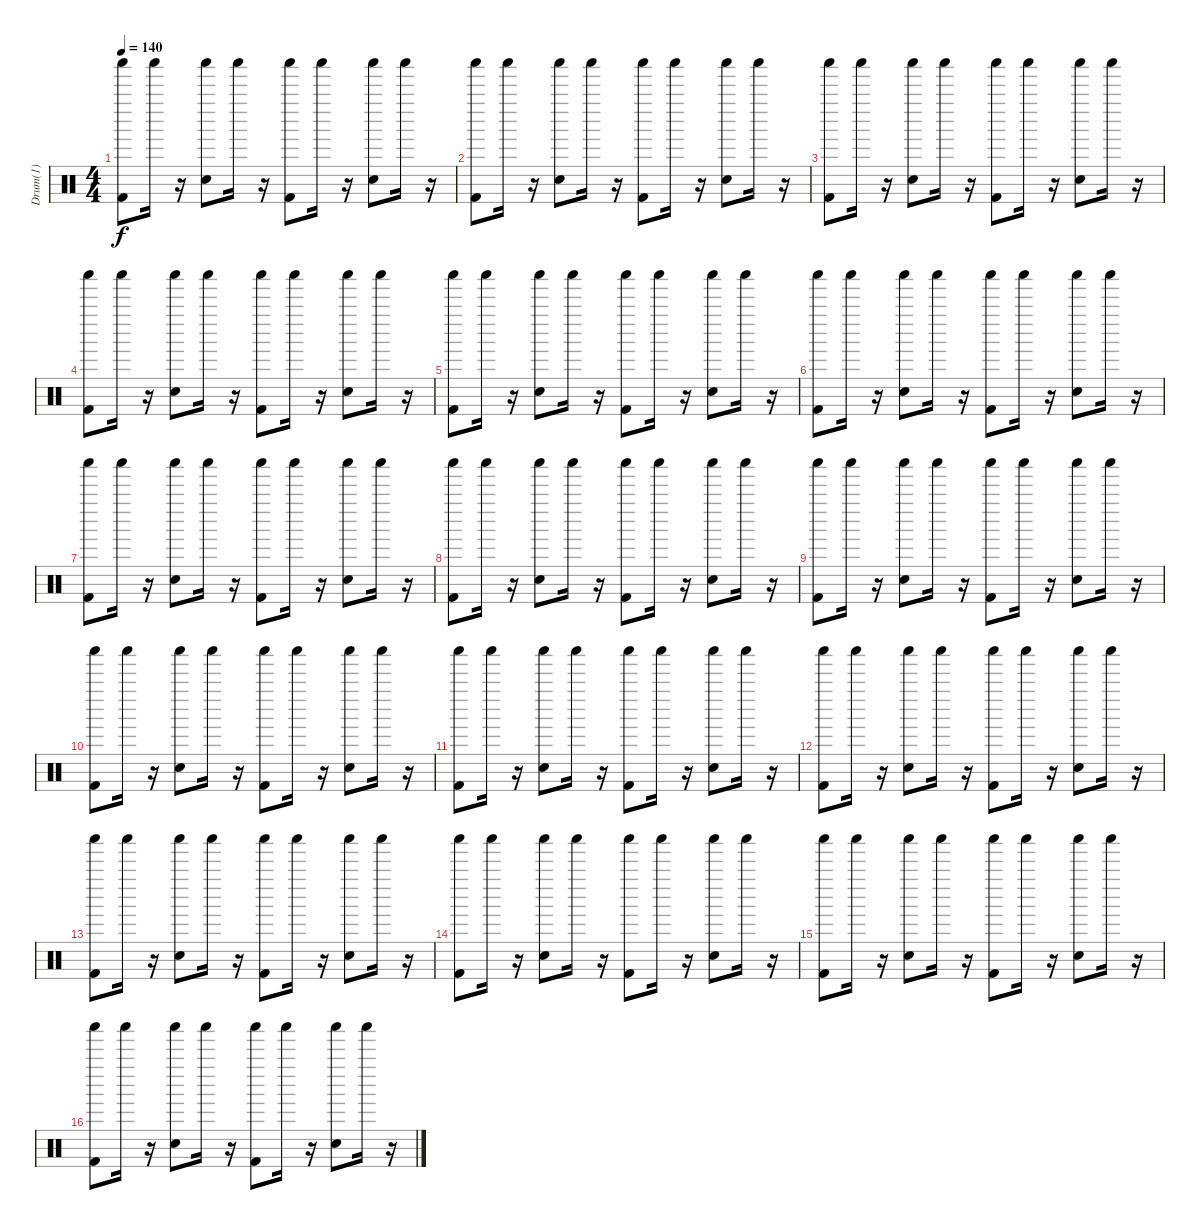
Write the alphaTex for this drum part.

\track ("Drum(1)" "Drum(1)") {instrument percussion}
\staff {score}
\articulation defaults
\ts (4 4)
\tempo 140
\clef neutral
\ks c
("Kick (hit) 2" "Shaker (hit)").8{dy f} "Shaker (hit)".16 r.16 ("Electric Snare (hit)" "Shaker (hit)").8 "Shaker (hit)".16 r.16 ("Kick (hit) 2" "Shaker (hit)").8 "Shaker (hit)".16 r.16 ("Electric Snare (hit)" "Shaker (hit)").8 "Shaker (hit)".16 r.16 |
("Kick (hit) 2" "Shaker (hit)").8 "Shaker (hit)".16 r.16 ("Electric Snare (hit)" "Shaker (hit)").8 "Shaker (hit)".16 r.16 ("Kick (hit) 2" "Shaker (hit)").8 "Shaker (hit)".16 r.16 ("Electric Snare (hit)" "Shaker (hit)").8 "Shaker (hit)".16 r.16 |
("Kick (hit) 2" "Shaker (hit)").8 "Shaker (hit)".16 r.16 ("Electric Snare (hit)" "Shaker (hit)").8 "Shaker (hit)".16 r.16 ("Kick (hit) 2" "Shaker (hit)").8 "Shaker (hit)".16 r.16 ("Electric Snare (hit)" "Shaker (hit)").8 "Shaker (hit)".16 r.16 |
("Kick (hit) 2" "Shaker (hit)").8 "Shaker (hit)".16 r.16 ("Electric Snare (hit)" "Shaker (hit)").8 "Shaker (hit)".16 r.16 ("Kick (hit) 2" "Shaker (hit)").8 "Shaker (hit)".16 r.16 ("Electric Snare (hit)" "Shaker (hit)").8 "Shaker (hit)".16 r.16 |
("Kick (hit) 2" "Shaker (hit)").8 "Shaker (hit)".16 r.16 ("Electric Snare (hit)" "Shaker (hit)").8 "Shaker (hit)".16 r.16 ("Kick (hit) 2" "Shaker (hit)").8 "Shaker (hit)".16 r.16 ("Electric Snare (hit)" "Shaker (hit)").8 "Shaker (hit)".16 r.16 |
("Kick (hit) 2" "Shaker (hit)").8 "Shaker (hit)".16 r.16 ("Electric Snare (hit)" "Shaker (hit)").8 "Shaker (hit)".16 r.16 ("Kick (hit) 2" "Shaker (hit)").8 "Shaker (hit)".16 r.16 ("Electric Snare (hit)" "Shaker (hit)").8 "Shaker (hit)".16 r.16 |
("Kick (hit) 2" "Shaker (hit)").8 "Shaker (hit)".16 r.16 ("Electric Snare (hit)" "Shaker (hit)").8 "Shaker (hit)".16 r.16 ("Kick (hit) 2" "Shaker (hit)").8 "Shaker (hit)".16 r.16 ("Electric Snare (hit)" "Shaker (hit)").8 "Shaker (hit)".16 r.16 |
("Kick (hit) 2" "Shaker (hit)").8 "Shaker (hit)".16 r.16 ("Electric Snare (hit)" "Shaker (hit)").8 "Shaker (hit)".16 r.16 ("Kick (hit) 2" "Shaker (hit)").8 "Shaker (hit)".16 r.16 ("Electric Snare (hit)" "Shaker (hit)").8 "Shaker (hit)".16 r.16 |
("Kick (hit) 2" "Shaker (hit)").8 "Shaker (hit)".16 r.16 ("Electric Snare (hit)" "Shaker (hit)").8 "Shaker (hit)".16 r.16 ("Kick (hit) 2" "Shaker (hit)").8 "Shaker (hit)".16 r.16 ("Electric Snare (hit)" "Shaker (hit)").8 "Shaker (hit)".16 r.16 |
("Kick (hit) 2" "Shaker (hit)").8 "Shaker (hit)".16 r.16 ("Electric Snare (hit)" "Shaker (hit)").8 "Shaker (hit)".16 r.16 ("Kick (hit) 2" "Shaker (hit)").8 "Shaker (hit)".16 r.16 ("Electric Snare (hit)" "Shaker (hit)").8 "Shaker (hit)".16 r.16 |
("Kick (hit) 2" "Shaker (hit)").8 "Shaker (hit)".16 r.16 ("Electric Snare (hit)" "Shaker (hit)").8 "Shaker (hit)".16 r.16 ("Kick (hit) 2" "Shaker (hit)").8 "Shaker (hit)".16 r.16 ("Electric Snare (hit)" "Shaker (hit)").8 "Shaker (hit)".16 r.16 |
("Kick (hit) 2" "Shaker (hit)").8 "Shaker (hit)".16 r.16 ("Electric Snare (hit)" "Shaker (hit)").8 "Shaker (hit)".16 r.16 ("Kick (hit) 2" "Shaker (hit)").8 "Shaker (hit)".16 r.16 ("Electric Snare (hit)" "Shaker (hit)").8 "Shaker (hit)".16 r.16 |
("Kick (hit) 2" "Shaker (hit)").8 "Shaker (hit)".16 r.16 ("Electric Snare (hit)" "Shaker (hit)").8 "Shaker (hit)".16 r.16 ("Kick (hit) 2" "Shaker (hit)").8 "Shaker (hit)".16 r.16 ("Electric Snare (hit)" "Shaker (hit)").8 "Shaker (hit)".16 r.16 |
("Kick (hit) 2" "Shaker (hit)").8 "Shaker (hit)".16 r.16 ("Electric Snare (hit)" "Shaker (hit)").8 "Shaker (hit)".16 r.16 ("Kick (hit) 2" "Shaker (hit)").8 "Shaker (hit)".16 r.16 ("Electric Snare (hit)" "Shaker (hit)").8 "Shaker (hit)".16 r.16 |
("Kick (hit) 2" "Shaker (hit)").8 "Shaker (hit)".16 r.16 ("Electric Snare (hit)" "Shaker (hit)").8 "Shaker (hit)".16 r.16 ("Kick (hit) 2" "Shaker (hit)").8 "Shaker (hit)".16 r.16 ("Electric Snare (hit)" "Shaker (hit)").8 "Shaker (hit)".16 r.16 |
("Kick (hit) 2" "Shaker (hit)").8 "Shaker (hit)".16 r.16 ("Electric Snare (hit)" "Shaker (hit)").8 "Shaker (hit)".16 r.16 ("Kick (hit) 2" "Shaker (hit)").8 "Shaker (hit)".16 r.16 ("Electric Snare (hit)" "Shaker (hit)").8 "Shaker (hit)".16 r.16
